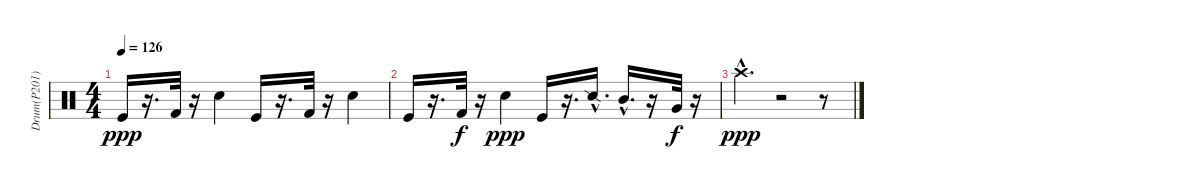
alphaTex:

\track ("Drum(P201)" "Drum(P201)") {instrument percussion}
\staff {score}
\articulation defaults
\ts (4 4)
\tempo 126
\clef neutral
\ks c "Kick (hit)".16{dy ppp}
r.16{d} "Kick (hit) 2".32 r.16 "Snare (hit) 2".4 "Kick (hit)".16 r.16{d} "Kick (hit) 2".32 r.16 "Snare (hit) 2".4 |
"Kick (hit)".16 r.16{d} "Kick (hit) 2".32{dy f} r.16 "Snare (hit) 2".4{dy ppp} "Kick (hit)".16 r.16{d} "Snare (side stick) 2"{hac}.16{d} "Mid Tom (hit)"{hac}.16{d} r.16 "Very Low Tom (hit)".32{dy f} r.16 |
"Crash high (hit)"{hac}.4{d dy ppp} r.2 r.8
